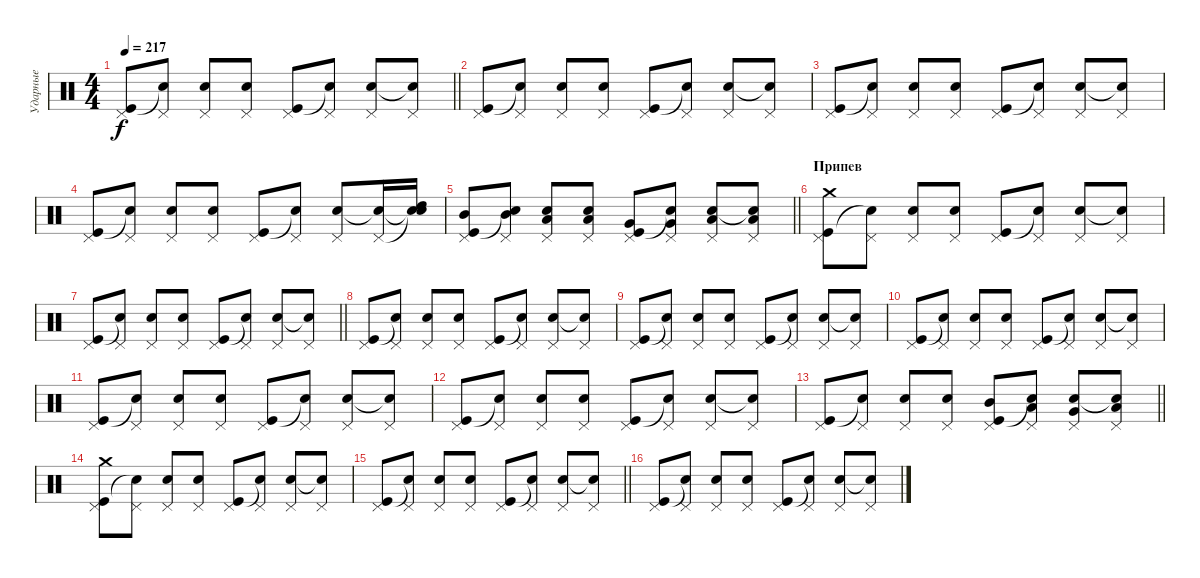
\track ("Ударные" "Ударные") {instrument percussion}
\staff {score}
\articulation defaults
\ts (4 4)
\tempo 217
\clef neutral
\barLineRight lightlight
\ks c
("Pedal Hi-Hat (hit)" "Kick (hit)").8{dy f} ("Pedal Hi-Hat (hit)" "Snare (hit)"{t}).8 ("Pedal Hi-Hat (hit)" "Snare (hit) 2").8 ("Pedal Hi-Hat (hit)" "Snare (hit) 2").8 ("Pedal Hi-Hat (hit)" "Kick (hit)").8 ("Pedal Hi-Hat (hit)" "Snare (hit)"{t}).8 ("Pedal Hi-Hat (hit)" "Snare (hit) 2").8 ("Pedal Hi-Hat (hit)" "Snare (hit)"{t}).8 |
("Pedal Hi-Hat (hit)" "Kick (hit)").8 ("Pedal Hi-Hat (hit)" "Snare (hit)"{t}).8 ("Pedal Hi-Hat (hit)" "Snare (hit) 2").8 ("Pedal Hi-Hat (hit)" "Snare (hit) 2").8 ("Pedal Hi-Hat (hit)" "Kick (hit)").8 ("Pedal Hi-Hat (hit)" "Snare (hit)"{t}).8 ("Pedal Hi-Hat (hit)" "Snare (hit) 2").8 ("Pedal Hi-Hat (hit)" "Snare (hit)"{t}).8 |
("Pedal Hi-Hat (hit)" "Kick (hit)").8 ("Pedal Hi-Hat (hit)" "Snare (hit)"{t}).8 ("Pedal Hi-Hat (hit)" "Snare (hit) 2").8 ("Pedal Hi-Hat (hit)" "Snare (hit) 2").8 ("Pedal Hi-Hat (hit)" "Kick (hit)").8 ("Pedal Hi-Hat (hit)" "Snare (hit)"{t}).8 ("Pedal Hi-Hat (hit)" "Snare (hit) 2").8 ("Pedal Hi-Hat (hit)" "Snare (hit)"{t}).8 |
("Pedal Hi-Hat (hit)" "Kick (hit)").8 ("Pedal Hi-Hat (hit)" "Snare (hit)"{t}).8 ("Pedal Hi-Hat (hit)" "Snare (hit) 2").8 ("Pedal Hi-Hat (hit)" "Snare (hit) 2").8 ("Pedal Hi-Hat (hit)" "Kick (hit)").8 ("Pedal Hi-Hat (hit)" "Snare (hit)"{t}).8 ("Pedal Hi-Hat (hit)" "Snare (hit) 2").8 ("Pedal Hi-Hat (hit)" "Snare (hit)"{t}).16 ("Snare (hit)"{t} "Snare (hit)"{t} "High Tom (hit)").16 |
\barLineRight lightlight
("Pedal Hi-Hat (hit)" "Kick (hit)" "Mid Tom (hit)").8 ("Pedal Hi-Hat (hit)" "Snare (hit)"{t} "Mid Tom (hit)").8 ("Pedal Hi-Hat (hit)" "Snare (hit) 2" "Low Tom (hit)").8 ("Pedal Hi-Hat (hit)" "Snare (hit) 2" "Low Tom (hit)").8 ("Pedal Hi-Hat (hit)" "Kick (hit)" "Very Low Tom (hit)").8 ("Pedal Hi-Hat (hit)" "Snare (hit)"{t} "Very Low Tom (hit)").8 ("Pedal Hi-Hat (hit)" "Snare (hit) 2" "Low Floor Tom (hit)").8 ("Pedal Hi-Hat (hit)" "Snare (hit)"{t} "Low Floor Tom (hit)").8 |
\section ("" "Припев")
("Pedal Hi-Hat (hit)" "Kick (hit)" "Crash medium (hit)").8 ("Pedal Hi-Hat (hit)" "Snare (hit)"{t}).8 ("Pedal Hi-Hat (hit)" "Snare (hit) 2").8 ("Pedal Hi-Hat (hit)" "Snare (hit) 2").8 ("Pedal Hi-Hat (hit)" "Kick (hit)").8 ("Pedal Hi-Hat (hit)" "Snare (hit)"{t}).8 ("Pedal Hi-Hat (hit)" "Snare (hit) 2").8 ("Pedal Hi-Hat (hit)" "Snare (hit)"{t}).8 |
\barLineRight lightlight
("Pedal Hi-Hat (hit)" "Kick (hit)").8 ("Pedal Hi-Hat (hit)" "Snare (hit)"{t}).8 ("Pedal Hi-Hat (hit)" "Snare (hit) 2").8 ("Pedal Hi-Hat (hit)" "Snare (hit) 2").8 ("Pedal Hi-Hat (hit)" "Kick (hit)").8 ("Pedal Hi-Hat (hit)" "Snare (hit)"{t}).8 ("Pedal Hi-Hat (hit)" "Snare (hit) 2").8 ("Pedal Hi-Hat (hit)" "Snare (hit)"{t}).8 |
("Pedal Hi-Hat (hit)" "Kick (hit)").8 ("Pedal Hi-Hat (hit)" "Snare (hit)"{t}).8 ("Pedal Hi-Hat (hit)" "Snare (hit) 2").8 ("Pedal Hi-Hat (hit)" "Snare (hit) 2").8 ("Pedal Hi-Hat (hit)" "Kick (hit)").8 ("Pedal Hi-Hat (hit)" "Snare (hit)"{t}).8 ("Pedal Hi-Hat (hit)" "Snare (hit) 2").8 ("Pedal Hi-Hat (hit)" "Snare (hit)"{t}).8 |
("Pedal Hi-Hat (hit)" "Kick (hit)").8 ("Pedal Hi-Hat (hit)" "Snare (hit)"{t}).8 ("Pedal Hi-Hat (hit)" "Snare (hit) 2").8 ("Pedal Hi-Hat (hit)" "Snare (hit) 2").8 ("Pedal Hi-Hat (hit)" "Kick (hit)").8 ("Pedal Hi-Hat (hit)" "Snare (hit)"{t}).8 ("Pedal Hi-Hat (hit)" "Snare (hit) 2").8 ("Pedal Hi-Hat (hit)" "Snare (hit)"{t}).8 |
("Pedal Hi-Hat (hit)" "Kick (hit)").8 ("Pedal Hi-Hat (hit)" "Snare (hit)"{t}).8 ("Pedal Hi-Hat (hit)" "Snare (hit) 2").8 ("Pedal Hi-Hat (hit)" "Snare (hit) 2").8 ("Pedal Hi-Hat (hit)" "Kick (hit)").8 ("Pedal Hi-Hat (hit)" "Snare (hit)"{t}).8 ("Pedal Hi-Hat (hit)" "Snare (hit) 2").8 ("Pedal Hi-Hat (hit)" "Snare (hit)"{t}).8 |
("Pedal Hi-Hat (hit)" "Kick (hit)").8 ("Pedal Hi-Hat (hit)" "Snare (hit)"{t}).8 ("Pedal Hi-Hat (hit)" "Snare (hit) 2").8 ("Pedal Hi-Hat (hit)" "Snare (hit) 2").8 ("Pedal Hi-Hat (hit)" "Kick (hit)").8 ("Pedal Hi-Hat (hit)" "Snare (hit)"{t}).8 ("Pedal Hi-Hat (hit)" "Snare (hit) 2").8 ("Pedal Hi-Hat (hit)" "Snare (hit)"{t}).8 |
("Pedal Hi-Hat (hit)" "Kick (hit)").8 ("Pedal Hi-Hat (hit)" "Snare (hit)"{t}).8 ("Pedal Hi-Hat (hit)" "Snare (hit) 2").8 ("Pedal Hi-Hat (hit)" "Snare (hit) 2").8 ("Pedal Hi-Hat (hit)" "Kick (hit)").8 ("Pedal Hi-Hat (hit)" "Snare (hit)"{t}).8 ("Pedal Hi-Hat (hit)" "Snare (hit) 2").8 ("Pedal Hi-Hat (hit)" "Snare (hit)"{t}).8 |
\barLineRight lightlight
("Pedal Hi-Hat (hit)" "Kick (hit)").8 ("Pedal Hi-Hat (hit)" "Snare (hit)"{t}).8 ("Pedal Hi-Hat (hit)" "Snare (hit) 2").8 ("Pedal Hi-Hat (hit)" "Snare (hit) 2").8 ("Pedal Hi-Hat (hit)" "Kick (hit)" "Mid Tom (hit)").8 ("Pedal Hi-Hat (hit)" "Snare (hit)"{t} "Low Tom (hit)").8 ("Pedal Hi-Hat (hit)" "Snare (hit) 2" "Very Low Tom (hit)").8 ("Pedal Hi-Hat (hit)" "Snare (hit)"{t} "Low Floor Tom (hit)").8 |
("Pedal Hi-Hat (hit)" "Kick (hit)" "Crash medium (hit)").8 ("Pedal Hi-Hat (hit)" "Snare (hit)"{t}).8 ("Pedal Hi-Hat (hit)" "Snare (hit) 2").8 ("Pedal Hi-Hat (hit)" "Snare (hit) 2").8 ("Pedal Hi-Hat (hit)" "Kick (hit)").8 ("Pedal Hi-Hat (hit)" "Snare (hit)"{t}).8 ("Pedal Hi-Hat (hit)" "Snare (hit) 2").8 ("Pedal Hi-Hat (hit)" "Snare (hit)"{t}).8 |
\barLineRight lightlight
("Pedal Hi-Hat (hit)" "Kick (hit)").8 ("Pedal Hi-Hat (hit)" "Snare (hit)"{t}).8 ("Pedal Hi-Hat (hit)" "Snare (hit) 2").8 ("Pedal Hi-Hat (hit)" "Snare (hit) 2").8 ("Pedal Hi-Hat (hit)" "Kick (hit)").8 ("Pedal Hi-Hat (hit)" "Snare (hit)"{t}).8 ("Pedal Hi-Hat (hit)" "Snare (hit) 2").8 ("Pedal Hi-Hat (hit)" "Snare (hit)"{t}).8 |
("Pedal Hi-Hat (hit)" "Kick (hit)").8 ("Pedal Hi-Hat (hit)" "Snare (hit)"{t}).8 ("Pedal Hi-Hat (hit)" "Snare (hit) 2").8 ("Pedal Hi-Hat (hit)" "Snare (hit) 2").8 ("Pedal Hi-Hat (hit)" "Kick (hit)").8 ("Pedal Hi-Hat (hit)" "Snare (hit)"{t}).8 ("Pedal Hi-Hat (hit)" "Snare (hit) 2").8 ("Pedal Hi-Hat (hit)" "Snare (hit)"{t}).8
